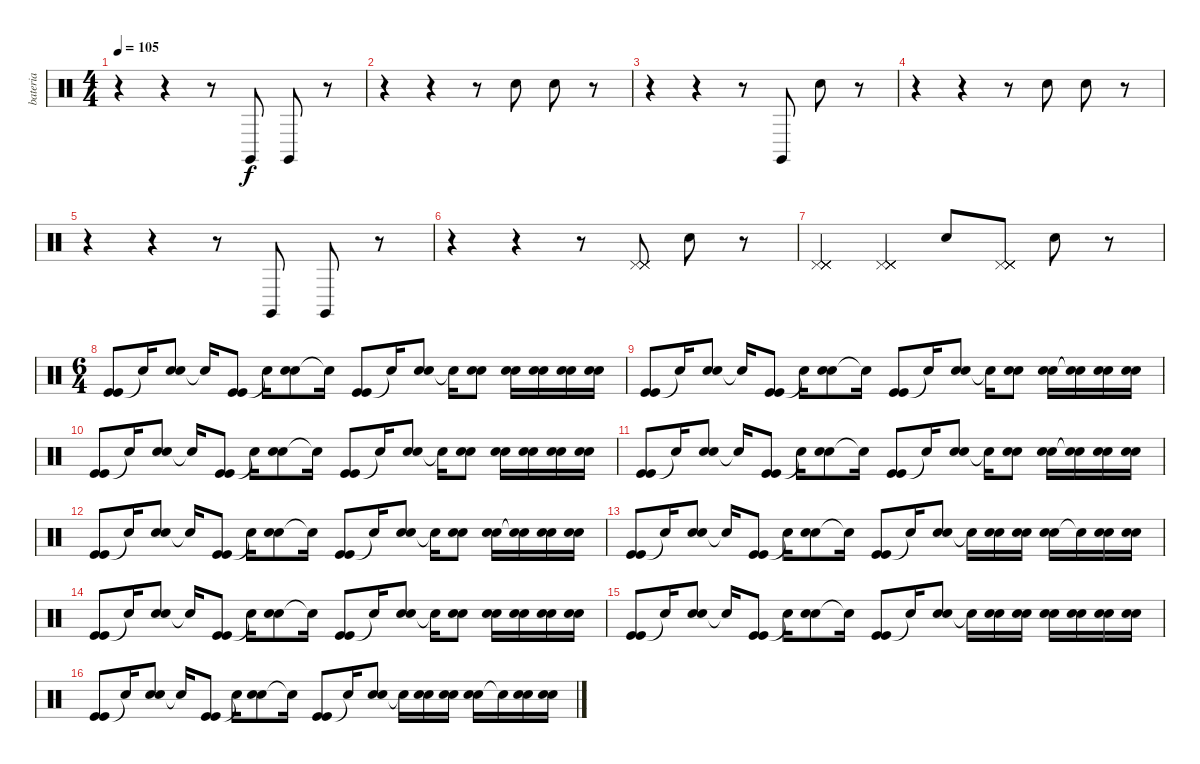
\track ("bateria" "bateria") {instrument percussion}
\staff {score}
\articulation defaults
\ts (4 4)
\tempo 105
\clef neutral
\ks c
r.4{dy f} r.4 r.8 "Claves (hit)".8 "Claves (hit)".8 r.8 |
r.4 r.4 r.8 "Electric Snare (hit)".8 "Electric Snare (hit)".8 r.8 |
r.4 r.4 r.8 "Claves (hit)".8 "Electric Snare (hit)".8 r.8 |
r.4 r.4 r.8 "Electric Snare (hit)".8 "Electric Snare (hit)".8 r.8 |
r.4 r.4 r.8 "Claves (hit)".8 "Claves (hit)".8 r.8 |
r.4 r.4 r.8 ("Pedal Hi-Hat (hit)" "Pedal Hi-Hat (hit)" "Pedal Hi-Hat (hit)" "Pedal Hi-Hat (hit)").8 "Electric Snare (hit)".8 r.8 |
("Pedal Hi-Hat (hit)" "Pedal Hi-Hat (hit)" "Pedal Hi-Hat (hit)" "Pedal Hi-Hat (hit)" "Pedal Hi-Hat (hit)").4 ("Pedal Hi-Hat (hit)" "Pedal Hi-Hat (hit)" "Pedal Hi-Hat (hit)" "Pedal Hi-Hat (hit)" "Pedal Hi-Hat (hit)").4 "Snare (hit) 2".8 ("Pedal Hi-Hat (hit)" "Pedal Hi-Hat (hit)" "Pedal Hi-Hat (hit)" "Pedal Hi-Hat (hit)" "Pedal Hi-Hat (hit)").8 "Electric Snare (hit)".8 r.8 |
\ts (6 4)
("Kick (hit)" "Kick (hit)").8 "Snare (hit)"{t}.16 ("Snare (hit) 2" "Snare (hit) 2").8 "Snare (hit)"{t}.16 ("Kick (hit)" "Kick (hit)").8 "Snare (hit)"{t}.16 ("Snare (hit) 2" "Snare (hit) 2").8 "Snare (hit)"{t}.16 ("Kick (hit)" "Kick (hit)").8 "Snare (hit)"{t}.16 ("Snare (hit) 2" "Snare (hit) 2").8 "Snare (hit)"{t}.16 ("Snare (hit) 2" "Snare (hit) 2").8 ("Snare (hit) 2" "Snare (hit) 2").16 ("Snare (hit) 2" "Snare (hit) 2").16 ("Snare (hit) 2" "Snare (hit) 2").16 ("Snare (hit) 2" "Snare (hit) 2").16 |
("Kick (hit)" "Kick (hit)").8 "Snare (hit)"{t}.16 ("Snare (hit) 2" "Snare (hit) 2").8 "Snare (hit)"{t}.16 ("Kick (hit)" "Kick (hit)").8 "Snare (hit)"{t}.16 ("Snare (hit) 2" "Snare (hit) 2").8 "Snare (hit)"{t}.16 ("Kick (hit)" "Kick (hit)").8 "Snare (hit)"{t}.16 ("Snare (hit) 2" "Snare (hit) 2").8 "Snare (hit)"{t}.16 ("Snare (hit) 2" "Snare (hit) 2").8 ("Snare (hit) 2" "Snare (hit) 2").16 ("Snare (hit) 2"{t} "Snare (hit) 2"{t}).16 ("Snare (hit) 2" "Snare (hit) 2").16 ("Snare (hit) 2" "Snare (hit) 2").16 |
("Kick (hit)" "Kick (hit)").8 "Snare (hit)"{t}.16 ("Snare (hit) 2" "Snare (hit) 2").8 "Snare (hit)"{t}.16 ("Kick (hit)" "Kick (hit)").8 "Snare (hit)"{t}.16 ("Snare (hit) 2" "Snare (hit) 2").8 "Snare (hit)"{t}.16 ("Kick (hit)" "Kick (hit)").8 "Snare (hit)"{t}.16 ("Snare (hit) 2" "Snare (hit) 2").8 "Snare (hit)"{t}.16 ("Snare (hit) 2" "Snare (hit) 2").8 ("Snare (hit) 2" "Snare (hit) 2").16 ("Snare (hit) 2" "Snare (hit) 2").16 ("Snare (hit) 2" "Snare (hit) 2").16 ("Snare (hit) 2" "Snare (hit) 2").16 |
("Kick (hit)" "Kick (hit)").8 "Snare (hit)"{t}.16 ("Snare (hit) 2" "Snare (hit) 2").8 "Snare (hit)"{t}.16 ("Kick (hit)" "Kick (hit)").8 "Snare (hit)"{t}.16 ("Snare (hit) 2" "Snare (hit) 2").8 "Snare (hit)"{t}.16 ("Kick (hit)" "Kick (hit)").8 "Snare (hit)"{t}.16 ("Snare (hit) 2" "Snare (hit) 2").8 "Snare (hit)"{t}.16 ("Snare (hit) 2" "Snare (hit) 2").8 ("Snare (hit) 2" "Snare (hit) 2").16 ("Snare (hit) 2"{t} "Snare (hit) 2"{t}).16 ("Snare (hit) 2" "Snare (hit) 2").16 ("Snare (hit) 2" "Snare (hit) 2").16 |
("Kick (hit)" "Kick (hit)").8 "Snare (hit)"{t}.16 ("Snare (hit) 2" "Snare (hit) 2").8 "Snare (hit)"{t}.16 ("Kick (hit)" "Kick (hit)").8 "Snare (hit)"{t}.16 ("Snare (hit) 2" "Snare (hit) 2").8 "Snare (hit)"{t}.16 ("Kick (hit)" "Kick (hit)").8 "Snare (hit)"{t}.16 ("Snare (hit) 2" "Snare (hit) 2").8 "Snare (hit)"{t}.16 ("Snare (hit) 2" "Snare (hit) 2").8 ("Snare (hit) 2" "Snare (hit) 2").16 ("Snare (hit) 2"{t} "Snare (hit) 2"{t}).16 ("Snare (hit) 2" "Snare (hit) 2").16 ("Snare (hit) 2" "Snare (hit) 2").16 |
("Kick (hit)" "Kick (hit)").8 "Snare (hit)"{t}.16 ("Snare (hit) 2" "Snare (hit) 2").8 "Snare (hit)"{t}.16 ("Kick (hit)" "Kick (hit)").8 "Snare (hit)"{t}.16 ("Snare (hit) 2" "Snare (hit) 2").8 "Snare (hit)"{t}.16 ("Kick (hit)" "Kick (hit)").8 "Snare (hit)"{t}.16 ("Snare (hit) 2" "Snare (hit) 2").8 "Snare (hit)"{t}.16 ("Snare (hit) 2" "Snare (hit) 2").16 ("Snare (hit) 2" "Snare (hit) 2").16 ("Snare (hit) 2" "Snare (hit) 2").16 "Snare (hit)"{t}.16 ("Snare (hit) 2" "Snare (hit) 2").16 ("Snare (hit) 2" "Snare (hit) 2").16 |
("Kick (hit)" "Kick (hit)").8 "Snare (hit)"{t}.16 ("Snare (hit) 2" "Snare (hit) 2").8 "Snare (hit)"{t}.16 ("Kick (hit)" "Kick (hit)").8 "Snare (hit)"{t}.16 ("Snare (hit) 2" "Snare (hit) 2").8 "Snare (hit)"{t}.16 ("Kick (hit)" "Kick (hit)").8 "Snare (hit)"{t}.16 ("Snare (hit) 2" "Snare (hit) 2").8 "Snare (hit)"{t}.16 ("Snare (hit) 2" "Snare (hit) 2").8 ("Snare (hit) 2" "Snare (hit) 2").16 ("Snare (hit) 2" "Snare (hit) 2").16 ("Snare (hit) 2" "Snare (hit) 2").16 ("Snare (hit) 2" "Snare (hit) 2").16 |
("Kick (hit)" "Kick (hit)").8 "Snare (hit)"{t}.16 ("Snare (hit) 2" "Snare (hit) 2").8 "Snare (hit)"{t}.16 ("Kick (hit)" "Kick (hit)").8 "Snare (hit)"{t}.16 ("Snare (hit) 2" "Snare (hit) 2").8 "Snare (hit)"{t}.16 ("Kick (hit)" "Kick (hit)").8 "Snare (hit)"{t}.16 ("Snare (hit) 2" "Snare (hit) 2").8 "Snare (hit)"{t}.16 ("Snare (hit) 2" "Snare (hit) 2").16 ("Snare (hit) 2" "Snare (hit) 2").16 ("Snare (hit) 2" "Snare (hit) 2").16 ("Snare (hit) 2" "Snare (hit) 2").16 ("Snare (hit) 2" "Snare (hit) 2").16 ("Snare (hit) 2" "Snare (hit) 2").16 |
("Kick (hit)" "Kick (hit)").8 "Snare (hit)"{t}.16 ("Snare (hit) 2" "Snare (hit) 2").8 "Snare (hit)"{t}.16 ("Kick (hit)" "Kick (hit)").8 "Snare (hit)"{t}.16 ("Snare (hit) 2" "Snare (hit) 2").8 "Snare (hit)"{t}.16 ("Kick (hit)" "Kick (hit)").8 "Snare (hit)"{t}.16 ("Snare (hit) 2" "Snare (hit) 2").8 "Snare (hit)"{t}.16 ("Snare (hit) 2" "Snare (hit) 2").16 ("Snare (hit) 2" "Snare (hit) 2").16 ("Snare (hit) 2" "Snare (hit) 2").16 "Snare (hit)"{t}.16 ("Snare (hit) 2" "Snare (hit) 2").16 ("Snare (hit) 2" "Snare (hit) 2").16
